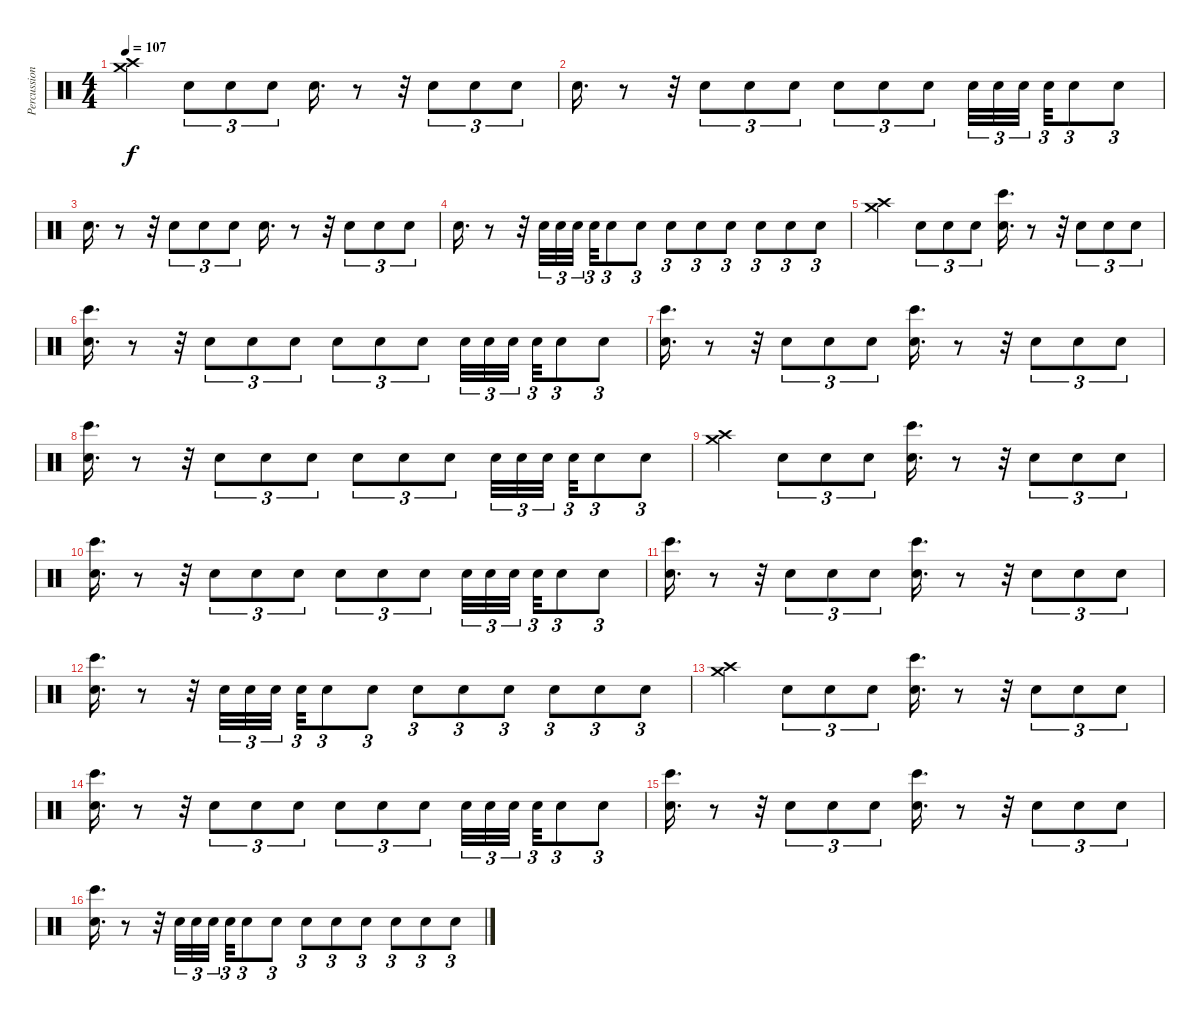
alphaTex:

\track ("Percussion" "Percussion") {instrument percussion}
\staff {score}
\articulation defaults
\ts (4 4)
\tempo 107
\clef neutral
\ks c
("Crash medium (hit)" "Crash high (hit)").4{dy f} "Electric Snare (hit)".8{tu (3 2)} "Electric Snare (hit)".8{tu (3 2)} "Electric Snare (hit)".8{tu (3 2)} "Hand Clap (hit)".16{d} r.8 r.32 "Electric Snare (hit)".8{tu (3 2)} "Electric Snare (hit)".8{tu (3 2)} "Electric Snare (hit)".8{tu (3 2)} |
"Hand Clap (hit)".16{d} r.8 r.32 "Electric Snare (hit)".8{tu (3 2)} "Electric Snare (hit)".8{tu (3 2)} "Electric Snare (hit)".8{tu (3 2)} "Electric Snare (hit)".8{tu (3 2)} "Electric Snare (hit)".8{tu (3 2)} "Electric Snare (hit)".8{tu (3 2)} "Electric Snare (hit)".32{tu (3 2)} "Electric Snare (hit)".32{tu (3 2)} "Electric Snare (hit)".32{tu (3 2) beam splitsecondary} "Electric Snare (hit)".32{tu (3 2)} "Electric Snare (hit)".8{tu (3 2)} "Electric Snare (hit)".8{tu (3 2)} |
"Hand Clap (hit)".16{d} r.8 r.32 "Electric Snare (hit)".8{tu (3 2)} "Electric Snare (hit)".8{tu (3 2)} "Electric Snare (hit)".8{tu (3 2)} "Hand Clap (hit)".16{d} r.8 r.32 "Electric Snare (hit)".8{tu (3 2)} "Electric Snare (hit)".8{tu (3 2)} "Electric Snare (hit)".8{tu (3 2)} |
"Hand Clap (hit)".16{d} r.8 r.32 "Electric Snare (hit)".32{tu (3 2)} "Electric Snare (hit)".32{tu (3 2)} "Electric Snare (hit)".32{tu (3 2) beam splitsecondary} "Electric Snare (hit)".32{tu (3 2)} "Electric Snare (hit)".8{tu (3 2)} "Electric Snare (hit)".8{tu (3 2)} "Electric Snare (hit)".8{tu (3 2)} "Electric Snare (hit)".8{tu (3 2)} "Electric Snare (hit)".8{tu (3 2)} "Electric Snare (hit)".8{tu (3 2)} "Electric Snare (hit)".8{tu (3 2)} "Electric Snare (hit)".8{tu (3 2)} |
("Crash medium (hit)" "Crash high (hit)").4 "Electric Snare (hit)".8{tu (3 2)} "Electric Snare (hit)".8{tu (3 2)} "Electric Snare (hit)".8{tu (3 2)} ("Hand Clap (hit)" "Bongo High (hit)").16{d} r.8 r.32 "Electric Snare (hit)".8{tu (3 2)} "Electric Snare (hit)".8{tu (3 2)} "Electric Snare (hit)".8{tu (3 2)} |
("Bongo High (hit)" "Hand Clap (hit)").16{d} r.8 r.32 "Electric Snare (hit)".8{tu (3 2)} "Electric Snare (hit)".8{tu (3 2)} "Electric Snare (hit)".8{tu (3 2)} "Electric Snare (hit)".8{tu (3 2)} "Electric Snare (hit)".8{tu (3 2)} "Electric Snare (hit)".8{tu (3 2)} "Electric Snare (hit)".32{tu (3 2)} "Electric Snare (hit)".32{tu (3 2)} "Electric Snare (hit)".32{tu (3 2) beam splitsecondary} "Electric Snare (hit)".32{tu (3 2)} "Electric Snare (hit)".8{tu (3 2)} "Electric Snare (hit)".8{tu (3 2)} |
("Hand Clap (hit)" "Bongo High (hit)").16{d} r.8 r.32 "Electric Snare (hit)".8{tu (3 2)} "Electric Snare (hit)".8{tu (3 2)} "Electric Snare (hit)".8{tu (3 2)} ("Bongo High (hit)" "Hand Clap (hit)").16{d} r.8 r.32 "Electric Snare (hit)".8{tu (3 2)} "Electric Snare (hit)".8{tu (3 2)} "Electric Snare (hit)".8{tu (3 2)} |
("Bongo High (hit)" "Hand Clap (hit)").16{d} r.8 r.32 "Electric Snare (hit)".8{tu (3 2)} "Electric Snare (hit)".8{tu (3 2)} "Electric Snare (hit)".8{tu (3 2)} "Electric Snare (hit)".8{tu (3 2)} "Electric Snare (hit)".8{tu (3 2)} "Electric Snare (hit)".8{tu (3 2)} "Electric Snare (hit)".32{tu (3 2)} "Electric Snare (hit)".32{tu (3 2)} "Electric Snare (hit)".32{tu (3 2) beam splitsecondary} "Electric Snare (hit)".32{tu (3 2)} "Electric Snare (hit)".8{tu (3 2)} "Electric Snare (hit)".8{tu (3 2)} |
("Crash medium (hit)" "Crash high (hit)").4 "Electric Snare (hit)".8{tu (3 2)} "Electric Snare (hit)".8{tu (3 2)} "Electric Snare (hit)".8{tu (3 2)} ("Hand Clap (hit)" "Bongo High (hit)").16{d} r.8 r.32 "Electric Snare (hit)".8{tu (3 2)} "Electric Snare (hit)".8{tu (3 2)} "Electric Snare (hit)".8{tu (3 2)} |
("Bongo High (hit)" "Hand Clap (hit)").16{d} r.8 r.32 "Electric Snare (hit)".8{tu (3 2)} "Electric Snare (hit)".8{tu (3 2)} "Electric Snare (hit)".8{tu (3 2)} "Electric Snare (hit)".8{tu (3 2)} "Electric Snare (hit)".8{tu (3 2)} "Electric Snare (hit)".8{tu (3 2)} "Electric Snare (hit)".32{tu (3 2)} "Electric Snare (hit)".32{tu (3 2)} "Electric Snare (hit)".32{tu (3 2) beam splitsecondary} "Electric Snare (hit)".32{tu (3 2)} "Electric Snare (hit)".8{tu (3 2)} "Electric Snare (hit)".8{tu (3 2)} |
("Bongo High (hit)" "Hand Clap (hit)").16{d} r.8 r.32 "Electric Snare (hit)".8{tu (3 2)} "Electric Snare (hit)".8{tu (3 2)} "Electric Snare (hit)".8{tu (3 2)} ("Bongo High (hit)" "Hand Clap (hit)").16{d} r.8 r.32 "Electric Snare (hit)".8{tu (3 2)} "Electric Snare (hit)".8{tu (3 2)} "Electric Snare (hit)".8{tu (3 2)} |
("Hand Clap (hit)" "Bongo High (hit)").16{d} r.8 r.32 "Electric Snare (hit)".32{tu (3 2)} "Electric Snare (hit)".32{tu (3 2)} "Electric Snare (hit)".32{tu (3 2) beam splitsecondary} "Electric Snare (hit)".32{tu (3 2)} "Electric Snare (hit)".8{tu (3 2)} "Electric Snare (hit)".8{tu (3 2)} "Electric Snare (hit)".8{tu (3 2)} "Electric Snare (hit)".8{tu (3 2)} "Electric Snare (hit)".8{tu (3 2)} "Electric Snare (hit)".8{tu (3 2)} "Electric Snare (hit)".8{tu (3 2)} "Electric Snare (hit)".8{tu (3 2)} |
("Crash high (hit)" "Crash medium (hit)").4 "Electric Snare (hit)".8{tu (3 2)} "Electric Snare (hit)".8{tu (3 2)} "Electric Snare (hit)".8{tu (3 2)} ("Hand Clap (hit)" "Bongo High (hit)").16{d} r.8 r.32 "Electric Snare (hit)".8{tu (3 2)} "Electric Snare (hit)".8{tu (3 2)} "Electric Snare (hit)".8{tu (3 2)} |
("Hand Clap (hit)" "Bongo High (hit)").16{d} r.8 r.32 "Electric Snare (hit)".8{tu (3 2)} "Electric Snare (hit)".8{tu (3 2)} "Electric Snare (hit)".8{tu (3 2)} "Electric Snare (hit)".8{tu (3 2)} "Electric Snare (hit)".8{tu (3 2)} "Electric Snare (hit)".8{tu (3 2)} "Electric Snare (hit)".32{tu (3 2)} "Electric Snare (hit)".32{tu (3 2)} "Electric Snare (hit)".32{tu (3 2) beam splitsecondary} "Electric Snare (hit)".32{tu (3 2)} "Electric Snare (hit)".8{tu (3 2)} "Electric Snare (hit)".8{tu (3 2)} |
("Hand Clap (hit)" "Bongo High (hit)").16{d} r.8 r.32 "Electric Snare (hit)".8{tu (3 2)} "Electric Snare (hit)".8{tu (3 2)} "Electric Snare (hit)".8{tu (3 2)} ("Bongo High (hit)" "Hand Clap (hit)").16{d} r.8 r.32 "Electric Snare (hit)".8{tu (3 2)} "Electric Snare (hit)".8{tu (3 2)} "Electric Snare (hit)".8{tu (3 2)} |
("Bongo High (hit)" "Hand Clap (hit)").16{d} r.8 r.32 "Electric Snare (hit)".32{tu (3 2)} "Electric Snare (hit)".32{tu (3 2)} "Electric Snare (hit)".32{tu (3 2) beam splitsecondary} "Electric Snare (hit)".32{tu (3 2)} "Electric Snare (hit)".8{tu (3 2)} "Electric Snare (hit)".8{tu (3 2)} "Electric Snare (hit)".8{tu (3 2)} "Electric Snare (hit)".8{tu (3 2)} "Electric Snare (hit)".8{tu (3 2)} "Electric Snare (hit)".8{tu (3 2)} "Electric Snare (hit)".8{tu (3 2)} "Electric Snare (hit)".8{tu (3 2)}
